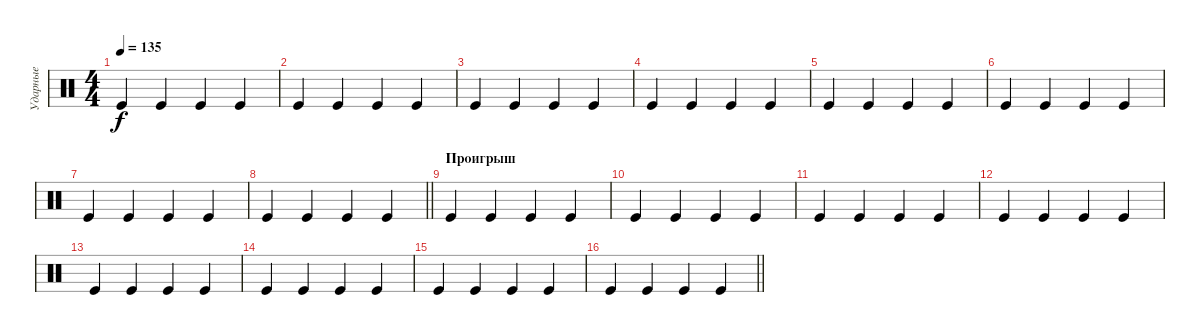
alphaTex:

\track ("Ударные" "Ударные") {instrument percussion}
\staff {score}
\articulation defaults
\ts (4 4)
\tempo 135
\clef neutral
\ks c "Kick (hit)".4{dy f} "Kick (hit)".4 "Kick (hit)".4 "Kick (hit)".4
|
"Kick (hit)".4 "Kick (hit)".4 "Kick (hit)".4 "Kick (hit)".4 |
"Kick (hit)".4 "Kick (hit)".4 "Kick (hit)".4 "Kick (hit)".4 |
"Kick (hit)".4 "Kick (hit)".4 "Kick (hit)".4 "Kick (hit)".4 |
"Kick (hit)".4 "Kick (hit)".4 "Kick (hit)".4 "Kick (hit)".4 |
"Kick (hit)".4 "Kick (hit)".4 "Kick (hit)".4 "Kick (hit)".4 |
"Kick (hit)".4 "Kick (hit)".4 "Kick (hit)".4 "Kick (hit)".4 |
\barLineRight lightlight "Kick (hit)".4 "Kick (hit)".4 "Kick (hit)".4 "Kick (hit)".4
|
\section ("" "Проигрыш")
"Kick (hit)".4 "Kick (hit)".4 "Kick (hit)".4 "Kick (hit)".4 |
"Kick (hit)".4 "Kick (hit)".4 "Kick (hit)".4 "Kick (hit)".4 |
"Kick (hit)".4 "Kick (hit)".4 "Kick (hit)".4 "Kick (hit)".4 |
"Kick (hit)".4 "Kick (hit)".4 "Kick (hit)".4 "Kick (hit)".4 |
"Kick (hit)".4 "Kick (hit)".4 "Kick (hit)".4 "Kick (hit)".4 |
"Kick (hit)".4 "Kick (hit)".4 "Kick (hit)".4 "Kick (hit)".4 |
"Kick (hit)".4 "Kick (hit)".4 "Kick (hit)".4 "Kick (hit)".4 |
\barLineRight lightlight "Kick (hit)".4 "Kick (hit)".4 "Kick (hit)".4 "Kick (hit)".4
